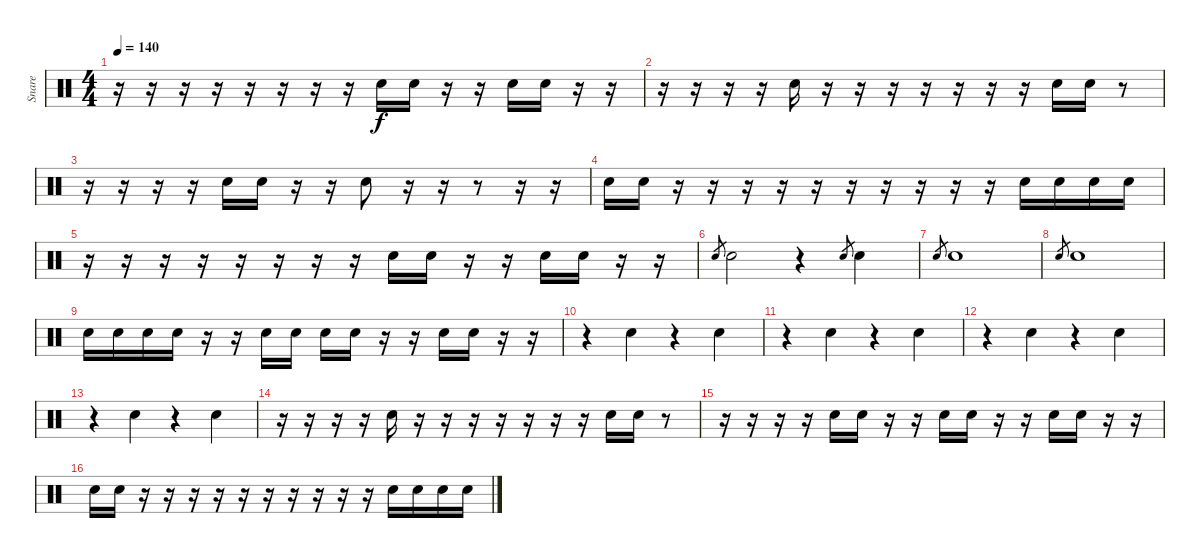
\track ("Snare" "Snare") {instrument percussion}
\staff {score}
\articulation defaults
\ts (4 4)
\tempo 140
\clef neutral
\ks c
r.16{dy f} r.16 r.16 r.16 r.16 r.16 r.16 r.16 "Snare (hit) 2".16 "Snare (hit) 2".16 r.16 r.16 "Snare (hit) 2".16 "Snare (hit) 2".16 r.16 r.16 |
r.16 r.16 r.16 r.16 "Snare (hit) 2".16 r.16 r.16 r.16 r.16 r.16 r.16 r.16 "Snare (hit) 2".16 "Snare (hit) 2".16 r.8 |
r.16 r.16 r.16 r.16 "Snare (hit) 2".16 "Snare (hit) 2".16 r.16 r.16 "Snare (hit) 2".8 r.16 r.16 r.8 r.16 r.16 |
"Snare (hit) 2".16 "Snare (hit) 2".16 r.16 r.16 r.16 r.16 r.16 r.16 r.16 r.16 r.16 r.16 "Snare (hit) 2".16 "Snare (hit) 2".16 "Snare (hit) 2".16 "Snare (hit) 2".16 |
r.16 r.16 r.16 r.16 r.16 r.16 r.16 r.16 "Snare (hit) 2".16 "Snare (hit) 2".16 r.16 r.16 "Snare (hit) 2".16 "Snare (hit) 2".16 r.16 r.16 |
"Snare (hit) 2".8{gr} "Snare (hit) 2".2 r.4 "Snare (hit) 2".8{gr} "Snare (hit) 2".4 |
"Snare (hit) 2".8{gr} "Snare (hit) 2".1 |
"Snare (hit) 2".8{gr} "Snare (hit) 2".1 |
"Snare (hit) 2".16 "Snare (hit) 2".16 "Snare (hit) 2".16 "Snare (hit) 2".16 r.16 r.16 "Snare (hit) 2".16 "Snare (hit) 2".16 "Snare (hit) 2".16 "Snare (hit) 2".16 r.16 r.16 "Snare (hit) 2".16 "Snare (hit) 2".16 r.16 r.16 |
r.4 "Snare (hit) 2".4 r.4 "Snare (hit) 2".4 |
r.4 "Snare (hit) 2".4 r.4 "Snare (hit) 2".4 |
r.4 "Snare (hit) 2".4 r.4 "Snare (hit) 2".4 |
r.4 "Snare (hit) 2".4 r.4 "Snare (hit) 2".4 |
r.16 r.16 r.16 r.16 "Snare (hit) 2".16 r.16 r.16 r.16 r.16 r.16 r.16 r.16 "Snare (hit) 2".16 "Snare (hit) 2".16 r.8 |
r.16 r.16 r.16 r.16 "Snare (hit) 2".16 "Snare (hit) 2".16 r.16 r.16 "Snare (hit) 2".16 "Snare (hit) 2".16 r.16 r.16 "Snare (hit) 2".16 "Snare (hit) 2".16 r.16 r.16 |
"Snare (hit) 2".16 "Snare (hit) 2".16 r.16 r.16 r.16 r.16 r.16 r.16 r.16 r.16 r.16 r.16 "Snare (hit) 2".16 "Snare (hit) 2".16 "Snare (hit) 2".16 "Snare (hit) 2".16
